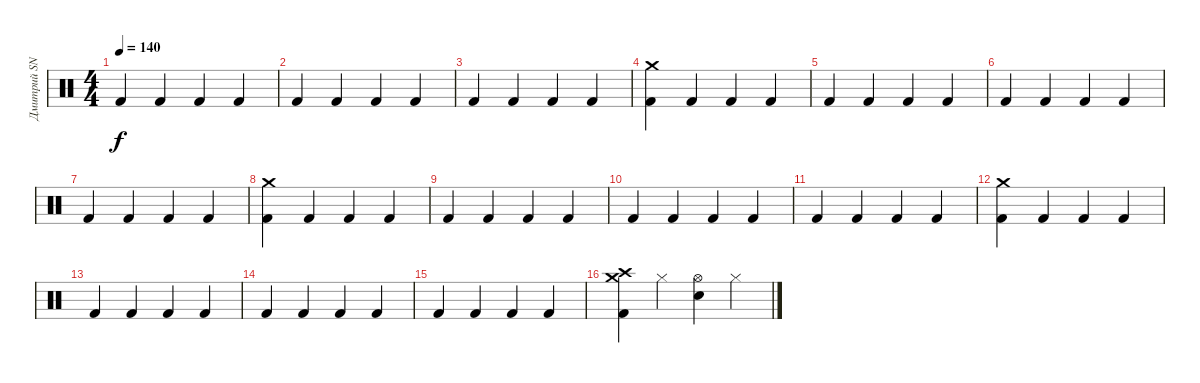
\track ("Дмитрий SNAKE Хакимов" "Дмитрий SN") {instrument percussion}
\staff {score}
\articulation defaults
\ts (4 4)
\tempo 140
\clef neutral
\ks c "Kick (hit) 2".4{dy f} "Kick (hit) 2".4 "Kick (hit) 2".4 "Kick (hit) 2".4
|
"Kick (hit) 2".4 "Kick (hit) 2".4 "Kick (hit) 2".4 "Kick (hit) 2".4 |
"Kick (hit) 2".4 "Kick (hit) 2".4 "Kick (hit) 2".4 "Kick (hit) 2".4 |
("Crash medium (hit)" "Kick (hit) 2").4 "Kick (hit) 2".4 "Kick (hit) 2".4 "Kick (hit) 2".4 |
"Kick (hit) 2".4 "Kick (hit) 2".4 "Kick (hit) 2".4 "Kick (hit) 2".4 |
"Kick (hit) 2".4 "Kick (hit) 2".4 "Kick (hit) 2".4 "Kick (hit) 2".4 |
"Kick (hit) 2".4 "Kick (hit) 2".4 "Kick (hit) 2".4 "Kick (hit) 2".4 |
("Crash medium (hit)" "Kick (hit) 2").4 "Kick (hit) 2".4 "Kick (hit) 2".4 "Kick (hit) 2".4 |
"Kick (hit) 2".4 "Kick (hit) 2".4 "Kick (hit) 2".4 "Kick (hit) 2".4 |
"Kick (hit) 2".4 "Kick (hit) 2".4 "Kick (hit) 2".4 "Kick (hit) 2".4 |
"Kick (hit) 2".4 "Kick (hit) 2".4 "Kick (hit) 2".4 "Kick (hit) 2".4 |
("Crash medium (hit)" "Kick (hit) 2").4 "Kick (hit) 2".4 "Kick (hit) 2".4 "Kick (hit) 2".4 |
"Kick (hit) 2".4 "Kick (hit) 2".4 "Kick (hit) 2".4 "Kick (hit) 2".4 |
"Kick (hit) 2".4 "Kick (hit) 2".4 "Kick (hit) 2".4 "Kick (hit) 2".4 |
"Kick (hit) 2".4 "Kick (hit) 2".4 "Kick (hit) 2".4 "Kick (hit) 2".4 |
("Crash high (hit)" "Crash medium (hit)" "Kick (hit) 2").4 "Hi-Hat (closed)".4 ("Hi-Hat (open)" "Snare (hit) 2").4 "Hi-Hat (closed)".4
